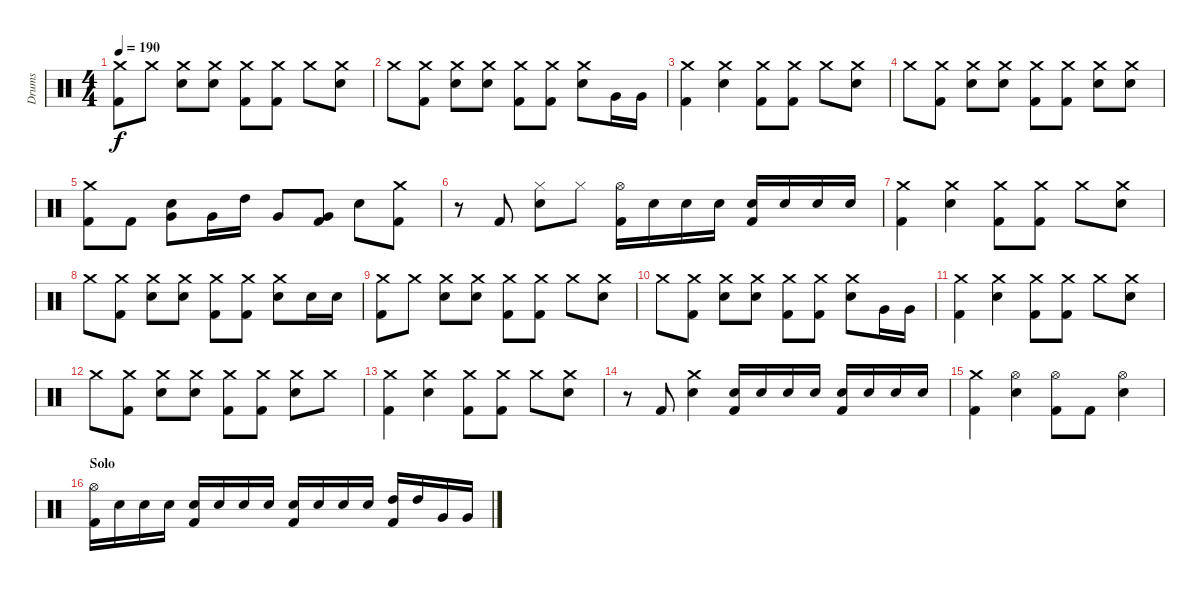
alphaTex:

\track ("Drums" "Drums") {instrument percussion}
\staff {score}
\articulation defaults
\ts (4 4)
\tempo 190
\clef neutral
\ks c
("Crash medium (hit)" "Kick (hit) 2").8{dy f} "Crash medium (hit)".8 ("Crash medium (hit)" "Snare (hit) 2").8 ("Crash medium (hit)" "Snare (hit) 2").8 ("Crash medium (hit)" "Kick (hit) 2").8 ("Crash medium (hit)" "Kick (hit) 2").8 "Crash medium (hit)".8 ("Crash medium (hit)" "Snare (hit) 2").8 |
"Crash medium (hit)".8 ("Crash medium (hit)" "Kick (hit) 2").8 ("Crash medium (hit)" "Snare (hit) 2").8 ("Crash medium (hit)" "Snare (hit) 2").8 ("Crash medium (hit)" "Kick (hit) 2").8 ("Crash medium (hit)" "Kick (hit) 2").8 ("Crash medium (hit)" "Snare (hit) 2").8 "Very Low Tom (hit)".16 "Very Low Tom (hit)".16 |
("Crash medium (hit)" "Kick (hit) 2").4 ("Crash medium (hit)" "Snare (hit) 2").4 ("Crash medium (hit)" "Kick (hit) 2").8 ("Crash medium (hit)" "Kick (hit) 2").8 "Crash medium (hit)".8 ("Crash medium (hit)" "Snare (hit) 2").8 |
"Crash medium (hit)".8 ("Crash medium (hit)" "Kick (hit) 2").8 ("Crash medium (hit)" "Snare (hit) 2").8 ("Crash medium (hit)" "Snare (hit) 2").8 ("Crash medium (hit)" "Kick (hit) 2").8 ("Crash medium (hit)" "Kick (hit) 2").8 ("Crash medium (hit)" "Snare (hit) 2").8 ("Crash medium (hit)" "Snare (hit) 2").8 |
("Crash medium (hit)" "Kick (hit) 2").8 "Kick (hit) 2".8 ("Snare (hit) 2" "Very Low Tom (hit)").8 "Very Low Tom (hit)".16 "High Tom (hit)".16 "Very Low Tom (hit)".8 ("Very Low Tom (hit)" "Kick (hit) 2").8 "Snare (hit) 2".8 ("Crash medium (hit)" "Kick (hit) 2").8 |
r.8 "Kick (hit) 2".8 ("Hi-Hat (closed)" "Snare (hit) 2").8 "Hi-Hat (closed)".8 ("Hi-Hat (open)" "Kick (hit) 2").16 "Snare (hit) 2".16 "Snare (hit) 2".16 "Snare (hit) 2".16 ("Snare (hit) 2" "Kick (hit) 2").16 "Snare (hit) 2".16 "Snare (hit) 2".16 "Snare (hit) 2".16 |
("Crash medium (hit)" "Kick (hit) 2").4 ("Crash medium (hit)" "Snare (hit) 2").4 ("Crash medium (hit)" "Kick (hit) 2").8 ("Crash medium (hit)" "Kick (hit) 2").8 "Crash medium (hit)".8 ("Crash medium (hit)" "Snare (hit) 2").8 |
"Crash medium (hit)".8 ("Crash medium (hit)" "Kick (hit) 2").8 ("Crash medium (hit)" "Snare (hit) 2").8 ("Crash medium (hit)" "Snare (hit) 2").8 ("Crash medium (hit)" "Kick (hit) 2").8 ("Crash medium (hit)" "Kick (hit) 2").8 ("Crash medium (hit)" "Snare (hit) 2").8 "Snare (hit) 2".16 "Snare (hit) 2".16 |
("Crash medium (hit)" "Kick (hit) 2").8 "Crash medium (hit)".8 ("Crash medium (hit)" "Snare (hit) 2").8 ("Crash medium (hit)" "Snare (hit) 2").8 ("Crash medium (hit)" "Kick (hit) 2").8 ("Crash medium (hit)" "Kick (hit) 2").8 "Crash medium (hit)".8 ("Crash medium (hit)" "Snare (hit) 2").8 |
"Crash medium (hit)".8 ("Crash medium (hit)" "Kick (hit) 2").8 ("Crash medium (hit)" "Snare (hit) 2").8 ("Crash medium (hit)" "Snare (hit) 2").8 ("Crash medium (hit)" "Kick (hit) 2").8 ("Crash medium (hit)" "Kick (hit) 2").8 ("Crash medium (hit)" "Snare (hit) 2").8 "Very Low Tom (hit)".16 "Very Low Tom (hit)".16 |
("Crash medium (hit)" "Kick (hit) 2").4 ("Crash medium (hit)" "Snare (hit) 2").4 ("Crash medium (hit)" "Kick (hit) 2").8 ("Crash medium (hit)" "Kick (hit) 2").8 "Crash medium (hit)".8 ("Crash medium (hit)" "Snare (hit) 2").8 |
"Crash medium (hit)".8 ("Crash medium (hit)" "Kick (hit) 2").8 ("Crash medium (hit)" "Snare (hit) 2").8 ("Crash medium (hit)" "Snare (hit) 2").8 ("Crash medium (hit)" "Kick (hit) 2").8 ("Crash medium (hit)" "Kick (hit) 2").8 ("Crash medium (hit)" "Snare (hit) 2").8 "Crash medium (hit)".8 |
("Crash medium (hit)" "Kick (hit) 2").4 ("Crash medium (hit)" "Snare (hit) 2").4 ("Crash medium (hit)" "Kick (hit) 2").8 ("Crash medium (hit)" "Kick (hit) 2").8 "Crash medium (hit)".8 ("Crash medium (hit)" "Snare (hit) 2").8 |
r.8 "Kick (hit) 2".8 ("Crash medium (hit)" "Snare (hit) 2").4 ("Snare (hit) 2" "Kick (hit) 2").16 "Snare (hit) 2".16 "Snare (hit) 2".16 "Snare (hit) 2".16 ("Snare (hit) 2" "Kick (hit) 2").16 "Snare (hit) 2".16 "Snare (hit) 2".16 "Snare (hit) 2".16 |
("Crash medium (hit)" "Kick (hit) 2").4 ("Hi-Hat (open)" "Snare (hit) 2").4 ("Hi-Hat (open)" "Kick (hit) 2").8 "Kick (hit) 2".8 ("Hi-Hat (open)" "Snare (hit) 2").4 |
\section ("" "Solo")
("Hi-Hat (open)" "Kick (hit) 2").16 "Snare (hit) 2".16 "Snare (hit) 2".16 "Snare (hit) 2".16 ("Snare (hit) 2" "Kick (hit) 2").16 "Snare (hit) 2".16 "Snare (hit) 2".16 "Snare (hit) 2".16 ("Snare (hit) 2" "Kick (hit) 2").16 "Snare (hit) 2".16 "Snare (hit) 2".16 "Snare (hit) 2".16 ("High Tom (hit)" "Kick (hit) 2").16 "High Tom (hit)".16 "Very Low Tom (hit)".16 "Very Low Tom (hit)".16
